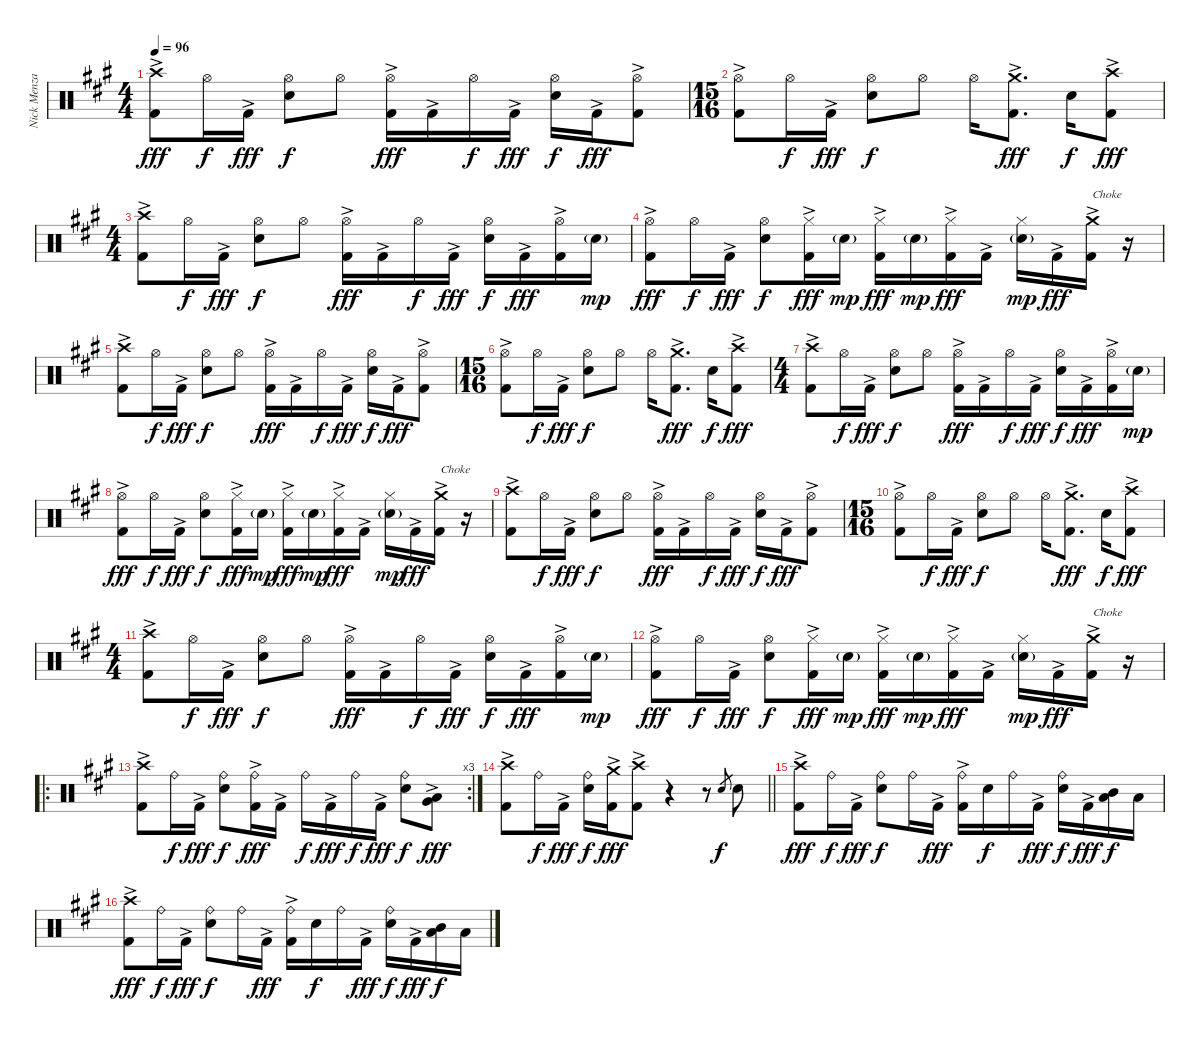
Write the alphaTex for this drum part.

\track ("Nick Menza" "Nick Menza") {instrument percussion}
\staff {score}
\articulation defaults
\ts (4 4)
\tempo 96
\clef neutral
\ks f#minor
("Crash high (hit)" "Kick (hit) 2"{ac}).8{dy fff} "Hi-Hat (open)".16{dy f} "Kick (hit) 2"{ac}.16{dy fff} ("Hi-Hat (open)" "Snare (hit) 2").8{dy f} "Hi-Hat (open)".8 ("Hi-Hat (open)" "Kick (hit) 2"{ac}).16{dy fff} "Kick (hit) 2"{ac}.16 "Hi-Hat (open)".16{dy f} "Kick (hit) 2"{ac}.16{dy fff} ("Hi-Hat (open)" "Snare (hit) 2").16{dy f} "Kick (hit) 2"{ac}.16{dy fff} ("Hi-Hat (open)" "Kick (hit) 2"{ac}).8 |
\ts (15 16)
("Hi-Hat (open)" "Kick (hit) 2"{ac}).8 "Hi-Hat (open)".16{dy f} "Kick (hit) 2"{ac}.16{dy fff} ("Hi-Hat (open)" "Snare (hit) 2").8{dy f} "Hi-Hat (open)".8 "Hi-Hat (open)".16 ("Crash medium (hit)" "Kick (hit) 2"{ac}).8{d dy fff} "Snare (hit) 2".16{dy f} ("Crash high (hit)" "Kick (hit) 2"{ac}).8{dy fff} |
\ts (4 4)
("Crash high (hit)" "Kick (hit) 2"{ac}).8 "Hi-Hat (open)".16{dy f} "Kick (hit) 2"{ac}.16{dy fff} ("Hi-Hat (open)" "Snare (hit) 2").8{dy f} "Hi-Hat (open)".8 ("Hi-Hat (open)" "Kick (hit) 2"{ac}).16{dy fff} "Kick (hit) 2"{ac}.16 "Hi-Hat (open)".16{dy f} "Kick (hit) 2"{ac}.16{dy fff} ("Hi-Hat (open)" "Snare (hit) 2").16{dy f} "Kick (hit) 2"{ac}.16{dy fff} ("Hi-Hat (open)" "Kick (hit) 2"{ac}).16 "Snare (hit) 2"{g}.16{dy mp} |
("Hi-Hat (open)" "Kick (hit) 2"{ac}).8{dy fff} "Hi-Hat (open)".16{dy f} "Kick (hit) 2"{ac}.16{dy fff} ("Hi-Hat (open)" "Snare (hit) 2").8{dy f} ("Hi-Hat (closed)" "Kick (hit) 2"{ac}).16{dy fff} "Snare (hit) 2"{g}.16{dy mp} ("Hi-Hat (closed)" "Kick (hit) 2"{ac}).16{dy fff} "Snare (hit) 2"{g}.16{dy mp} ("Hi-Hat (closed)" "Kick (hit) 2"{ac}).16{dy fff} "Kick (hit) 2"{ac}.16 ("Hi-Hat (closed)" "Snare (hit) 2"{g}).16{dy mp} "Kick (hit) 2"{ac}.16{dy fff} ("Crash medium (hit)" "Kick (hit) 2"{ac}).16{txt "Choke"} r.16 |
("Crash high (hit)" "Kick (hit) 2"{ac}).8 "Hi-Hat (open)".16{dy f} "Kick (hit) 2"{ac}.16{dy fff} ("Hi-Hat (open)" "Snare (hit) 2").8{dy f} "Hi-Hat (open)".8 ("Hi-Hat (open)" "Kick (hit) 2"{ac}).16{dy fff} "Kick (hit) 2"{ac}.16 "Hi-Hat (open)".16{dy f} "Kick (hit) 2"{ac}.16{dy fff} ("Hi-Hat (open)" "Snare (hit) 2").16{dy f} "Kick (hit) 2"{ac}.16{dy fff} ("Hi-Hat (open)" "Kick (hit) 2"{ac}).8 |
\ts (15 16)
("Hi-Hat (open)" "Kick (hit) 2"{ac}).8 "Hi-Hat (open)".16{dy f} "Kick (hit) 2"{ac}.16{dy fff} ("Hi-Hat (open)" "Snare (hit) 2").8{dy f} "Hi-Hat (open)".8 "Hi-Hat (open)".16 ("Crash medium (hit)" "Kick (hit) 2"{ac}).8{d dy fff} "Snare (hit) 2".16{dy f} ("Crash high (hit)" "Kick (hit) 2"{ac}).8{dy fff} |
\ts (4 4)
("Crash high (hit)" "Kick (hit) 2"{ac}).8 "Hi-Hat (open)".16{dy f} "Kick (hit) 2"{ac}.16{dy fff} ("Hi-Hat (open)" "Snare (hit) 2").8{dy f} "Hi-Hat (open)".8 ("Hi-Hat (open)" "Kick (hit) 2"{ac}).16{dy fff} "Kick (hit) 2"{ac}.16 "Hi-Hat (open)".16{dy f} "Kick (hit) 2"{ac}.16{dy fff} ("Hi-Hat (open)" "Snare (hit) 2").16{dy f} "Kick (hit) 2"{ac}.16{dy fff} ("Hi-Hat (open)" "Kick (hit) 2"{ac}).16 "Snare (hit) 2"{g}.16{dy mp} |
("Hi-Hat (open)" "Kick (hit) 2"{ac}).8{dy fff} "Hi-Hat (open)".16{dy f} "Kick (hit) 2"{ac}.16{dy fff} ("Hi-Hat (open)" "Snare (hit) 2").8{dy f} ("Hi-Hat (closed)" "Kick (hit) 2"{ac}).16{dy fff} "Snare (hit) 2"{g}.16{dy mp} ("Hi-Hat (closed)" "Kick (hit) 2"{ac}).16{dy fff} "Snare (hit) 2"{g}.16{dy mp} ("Hi-Hat (closed)" "Kick (hit) 2"{ac}).16{dy fff} "Kick (hit) 2"{ac}.16 ("Hi-Hat (closed)" "Snare (hit) 2"{g}).16{dy mp} "Kick (hit) 2"{ac}.16{dy fff} ("Crash medium (hit)" "Kick (hit) 2"{ac}).16{txt "Choke"} r.16 |
("Crash high (hit)" "Kick (hit) 2"{ac}).8 "Hi-Hat (open)".16{dy f} "Kick (hit) 2"{ac}.16{dy fff} ("Hi-Hat (open)" "Snare (hit) 2").8{dy f} "Hi-Hat (open)".8 ("Hi-Hat (open)" "Kick (hit) 2"{ac}).16{dy fff} "Kick (hit) 2"{ac}.16 "Hi-Hat (open)".16{dy f} "Kick (hit) 2"{ac}.16{dy fff} ("Hi-Hat (open)" "Snare (hit) 2").16{dy f} "Kick (hit) 2"{ac}.16{dy fff} ("Hi-Hat (open)" "Kick (hit) 2"{ac}).8 |
\ts (15 16)
("Hi-Hat (open)" "Kick (hit) 2"{ac}).8 "Hi-Hat (open)".16{dy f} "Kick (hit) 2"{ac}.16{dy fff} ("Hi-Hat (open)" "Snare (hit) 2").8{dy f} "Hi-Hat (open)".8 "Hi-Hat (open)".16 ("Crash medium (hit)" "Kick (hit) 2"{ac}).8{d dy fff} "Snare (hit) 2".16{dy f} ("Crash high (hit)" "Kick (hit) 2"{ac}).8{dy fff} |
\ts (4 4)
("Crash high (hit)" "Kick (hit) 2"{ac}).8 "Hi-Hat (open)".16{dy f} "Kick (hit) 2"{ac}.16{dy fff} ("Hi-Hat (open)" "Snare (hit) 2").8{dy f} "Hi-Hat (open)".8 ("Hi-Hat (open)" "Kick (hit) 2"{ac}).16{dy fff} "Kick (hit) 2"{ac}.16 "Hi-Hat (open)".16{dy f} "Kick (hit) 2"{ac}.16{dy fff} ("Hi-Hat (open)" "Snare (hit) 2").16{dy f} "Kick (hit) 2"{ac}.16{dy fff} ("Hi-Hat (open)" "Kick (hit) 2"{ac}).16 "Snare (hit) 2"{g}.16{dy mp} |
("Hi-Hat (open)" "Kick (hit) 2"{ac}).8{dy fff} "Hi-Hat (open)".16{dy f} "Kick (hit) 2"{ac}.16{dy fff} ("Hi-Hat (open)" "Snare (hit) 2").8{dy f} ("Hi-Hat (closed)" "Kick (hit) 2"{ac}).16{dy fff} "Snare (hit) 2"{g}.16{dy mp} ("Hi-Hat (closed)" "Kick (hit) 2"{ac}).16{dy fff} "Snare (hit) 2"{g}.16{dy mp} ("Hi-Hat (closed)" "Kick (hit) 2"{ac}).16{dy fff} "Kick (hit) 2"{ac}.16 ("Hi-Hat (closed)" "Snare (hit) 2"{g}).16{dy mp} "Kick (hit) 2"{ac}.16{dy fff} ("Crash medium (hit)" "Kick (hit) 2"{ac}).16{txt "Choke"} r.16 |
\ro
\rc 3
("Crash high (hit)" "Kick (hit) 2"{ac}).8 "Ride (bell)".16{dy f} "Kick (hit) 2"{ac}.16{dy fff} ("Ride (bell)" "Snare (hit) 2").8{dy f} ("Ride (bell)" "Kick (hit) 2"{ac}).16{dy fff} "Kick (hit) 2"{ac}.16 "Ride (bell)".16{dy f} "Kick (hit) 2"{ac}.16{dy fff} "Ride (bell)".16{dy f} "Kick (hit) 2"{ac}.16{dy fff} ("Ride (bell)" "Snare (hit) 2").8{dy f} ("Low Tom (hit)"{ac} "Very Low Tom (hit)"{ac}).8{dy fff} |
\barLineRight lightlight
("Crash high (hit)" "Kick (hit) 2"{ac}).8 "Ride (bell)".16{dy f} "Kick (hit) 2"{ac}.16{dy fff} ("Ride (bell)" "Snare (hit) 2").16{dy f} ("Crash medium (hit)" "Kick (hit) 2"{ac}).16{dy fff} ("Crash high (hit)" "Kick (hit) 2"{ac}).8 r.4 r.8 "Snare (hit) 2".8{gr dy f} "Snare (hit) 2".8 |
("Crash high (hit)" "Kick (hit) 2"{ac}).8{dy fff} "Ride (bell)".16{dy f} "Kick (hit) 2"{ac}.16{dy fff} ("Ride (bell)" "Snare (hit) 2").8{dy f} "Ride (bell)".16 "Kick (hit) 2"{ac}.16{dy fff} ("Ride (bell)" "Kick (hit) 2"{ac}).16 "Snare (hit) 2".16{dy f} "Ride (bell)".16 "Kick (hit) 2"{ac}.16{dy fff} ("Ride (bell)" "Snare (hit) 2").16{dy f} "Kick (hit) 2"{ac}.16{dy fff} ("Mid Tom (hit)" "Low Tom (hit)").16{dy f} "Low Tom (hit)".16 |
("Crash high (hit)" "Kick (hit) 2"{ac}).8{dy fff} "Ride (bell)".16{dy f} "Kick (hit) 2"{ac}.16{dy fff} ("Ride (bell)" "Snare (hit) 2").8{dy f} "Ride (bell)".16 "Kick (hit) 2"{ac}.16{dy fff} ("Ride (bell)" "Kick (hit) 2"{ac}).16 "Snare (hit) 2".16{dy f} "Ride (bell)".16 "Kick (hit) 2"{ac}.16{dy fff} ("Ride (bell)" "Snare (hit) 2").16{dy f} "Kick (hit) 2"{ac}.16{dy fff} ("Mid Tom (hit)" "Low Tom (hit)").16{dy f} "Low Tom (hit)".16
